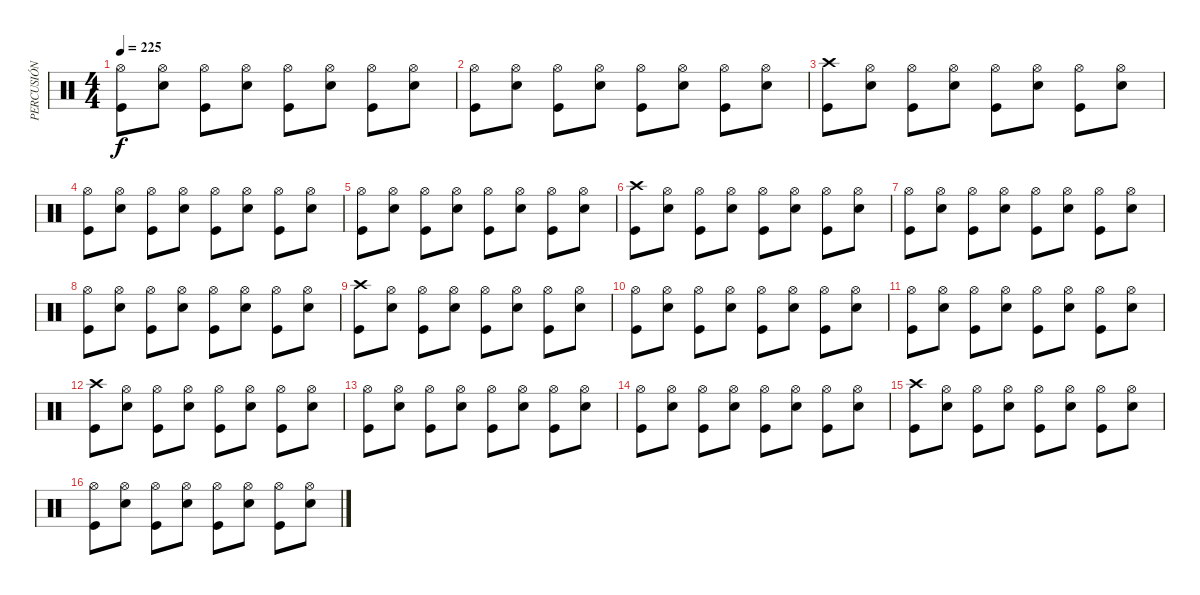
\track ("PERCUSIÓN" "PERCUSIÓN") {instrument percussion}
\staff {score}
\articulation defaults
\ts (4 4)
\tempo 225
\clef neutral
\ks c
("Hi-Hat (open)" "Kick (hit)").8{dy f} ("Hi-Hat (open)" "Snare (hit) 2").8 ("Hi-Hat (open)" "Kick (hit)").8 ("Hi-Hat (open)" "Snare (hit) 2").8 ("Hi-Hat (open)" "Kick (hit)").8 ("Hi-Hat (open)" "Snare (hit) 2").8 ("Hi-Hat (open)" "Kick (hit)").8 ("Hi-Hat (open)" "Snare (hit) 2").8 |
("Hi-Hat (open)" "Kick (hit)").8 ("Hi-Hat (open)" "Snare (hit) 2").8 ("Hi-Hat (open)" "Kick (hit)").8 ("Hi-Hat (open)" "Snare (hit) 2").8 ("Hi-Hat (open)" "Kick (hit)").8 ("Hi-Hat (open)" "Snare (hit) 2").8 ("Hi-Hat (open)" "Kick (hit)").8 ("Hi-Hat (open)" "Snare (hit) 2").8 |
("Crash high (hit)" "Kick (hit)").8 ("Hi-Hat (open)" "Snare (hit) 2").8 ("Hi-Hat (open)" "Kick (hit)").8 ("Hi-Hat (open)" "Snare (hit) 2").8 ("Hi-Hat (open)" "Kick (hit)").8 ("Hi-Hat (open)" "Snare (hit) 2").8 ("Hi-Hat (open)" "Kick (hit)").8 ("Hi-Hat (open)" "Snare (hit) 2").8 |
("Hi-Hat (open)" "Kick (hit)").8 ("Hi-Hat (open)" "Snare (hit) 2").8 ("Hi-Hat (open)" "Kick (hit)").8 ("Hi-Hat (open)" "Snare (hit) 2").8 ("Hi-Hat (open)" "Kick (hit)").8 ("Hi-Hat (open)" "Snare (hit) 2").8 ("Hi-Hat (open)" "Kick (hit)").8 ("Hi-Hat (open)" "Snare (hit) 2").8 |
("Hi-Hat (open)" "Kick (hit)").8 ("Hi-Hat (open)" "Snare (hit) 2").8 ("Hi-Hat (open)" "Kick (hit)").8 ("Hi-Hat (open)" "Snare (hit) 2").8 ("Hi-Hat (open)" "Kick (hit)").8 ("Hi-Hat (open)" "Snare (hit) 2").8 ("Hi-Hat (open)" "Kick (hit)").8 ("Hi-Hat (open)" "Snare (hit) 2").8 |
("Crash high (hit)" "Kick (hit)").8 ("Hi-Hat (open)" "Snare (hit) 2").8 ("Hi-Hat (open)" "Kick (hit)").8 ("Hi-Hat (open)" "Snare (hit) 2").8 ("Hi-Hat (open)" "Kick (hit)").8 ("Hi-Hat (open)" "Snare (hit) 2").8 ("Hi-Hat (open)" "Kick (hit)").8 ("Hi-Hat (open)" "Snare (hit) 2").8 |
("Hi-Hat (open)" "Kick (hit)").8 ("Hi-Hat (open)" "Snare (hit) 2").8 ("Hi-Hat (open)" "Kick (hit)").8 ("Hi-Hat (open)" "Snare (hit) 2").8 ("Hi-Hat (open)" "Kick (hit)").8 ("Hi-Hat (open)" "Snare (hit) 2").8 ("Hi-Hat (open)" "Kick (hit)").8 ("Hi-Hat (open)" "Snare (hit) 2").8 |
("Hi-Hat (open)" "Kick (hit)").8 ("Hi-Hat (open)" "Snare (hit) 2").8 ("Hi-Hat (open)" "Kick (hit)").8 ("Hi-Hat (open)" "Snare (hit) 2").8 ("Hi-Hat (open)" "Kick (hit)").8 ("Hi-Hat (open)" "Snare (hit) 2").8 ("Hi-Hat (open)" "Kick (hit)").8 ("Hi-Hat (open)" "Snare (hit) 2").8 |
("Crash high (hit)" "Kick (hit)").8 ("Hi-Hat (open)" "Snare (hit) 2").8 ("Hi-Hat (open)" "Kick (hit)").8 ("Hi-Hat (open)" "Snare (hit) 2").8 ("Hi-Hat (open)" "Kick (hit)").8 ("Hi-Hat (open)" "Snare (hit) 2").8 ("Hi-Hat (open)" "Kick (hit)").8 ("Hi-Hat (open)" "Snare (hit) 2").8 |
("Hi-Hat (open)" "Kick (hit)").8 ("Hi-Hat (open)" "Snare (hit) 2").8 ("Hi-Hat (open)" "Kick (hit)").8 ("Hi-Hat (open)" "Snare (hit) 2").8 ("Hi-Hat (open)" "Kick (hit)").8 ("Hi-Hat (open)" "Snare (hit) 2").8 ("Hi-Hat (open)" "Kick (hit)").8 ("Hi-Hat (open)" "Snare (hit) 2").8 |
("Hi-Hat (open)" "Kick (hit)").8 ("Hi-Hat (open)" "Snare (hit) 2").8 ("Hi-Hat (open)" "Kick (hit)").8 ("Hi-Hat (open)" "Snare (hit) 2").8 ("Hi-Hat (open)" "Kick (hit)").8 ("Hi-Hat (open)" "Snare (hit) 2").8 ("Hi-Hat (open)" "Kick (hit)").8 ("Hi-Hat (open)" "Snare (hit) 2").8 |
("Crash high (hit)" "Kick (hit)").8 ("Hi-Hat (open)" "Snare (hit) 2").8 ("Hi-Hat (open)" "Kick (hit)").8 ("Hi-Hat (open)" "Snare (hit) 2").8 ("Hi-Hat (open)" "Kick (hit)").8 ("Hi-Hat (open)" "Snare (hit) 2").8 ("Hi-Hat (open)" "Kick (hit)").8 ("Hi-Hat (open)" "Snare (hit) 2").8 |
("Hi-Hat (open)" "Kick (hit)").8 ("Hi-Hat (open)" "Snare (hit) 2").8 ("Hi-Hat (open)" "Kick (hit)").8 ("Hi-Hat (open)" "Snare (hit) 2").8 ("Hi-Hat (open)" "Kick (hit)").8 ("Hi-Hat (open)" "Snare (hit) 2").8 ("Hi-Hat (open)" "Kick (hit)").8 ("Hi-Hat (open)" "Snare (hit) 2").8 |
("Hi-Hat (open)" "Kick (hit)").8 ("Hi-Hat (open)" "Snare (hit) 2").8 ("Hi-Hat (open)" "Kick (hit)").8 ("Hi-Hat (open)" "Snare (hit) 2").8 ("Hi-Hat (open)" "Kick (hit)").8 ("Hi-Hat (open)" "Snare (hit) 2").8 ("Hi-Hat (open)" "Kick (hit)").8 ("Hi-Hat (open)" "Snare (hit) 2").8 |
("Crash high (hit)" "Kick (hit)").8 ("Hi-Hat (open)" "Snare (hit) 2").8 ("Hi-Hat (open)" "Kick (hit)").8 ("Hi-Hat (open)" "Snare (hit) 2").8 ("Hi-Hat (open)" "Kick (hit)").8 ("Hi-Hat (open)" "Snare (hit) 2").8 ("Hi-Hat (open)" "Kick (hit)").8 ("Hi-Hat (open)" "Snare (hit) 2").8 |
("Hi-Hat (open)" "Kick (hit)").8 ("Hi-Hat (open)" "Snare (hit) 2").8 ("Hi-Hat (open)" "Kick (hit)").8 ("Hi-Hat (open)" "Snare (hit) 2").8 ("Hi-Hat (open)" "Kick (hit)").8 ("Hi-Hat (open)" "Snare (hit) 2").8 ("Hi-Hat (open)" "Kick (hit)").8 ("Hi-Hat (open)" "Snare (hit) 2").8
